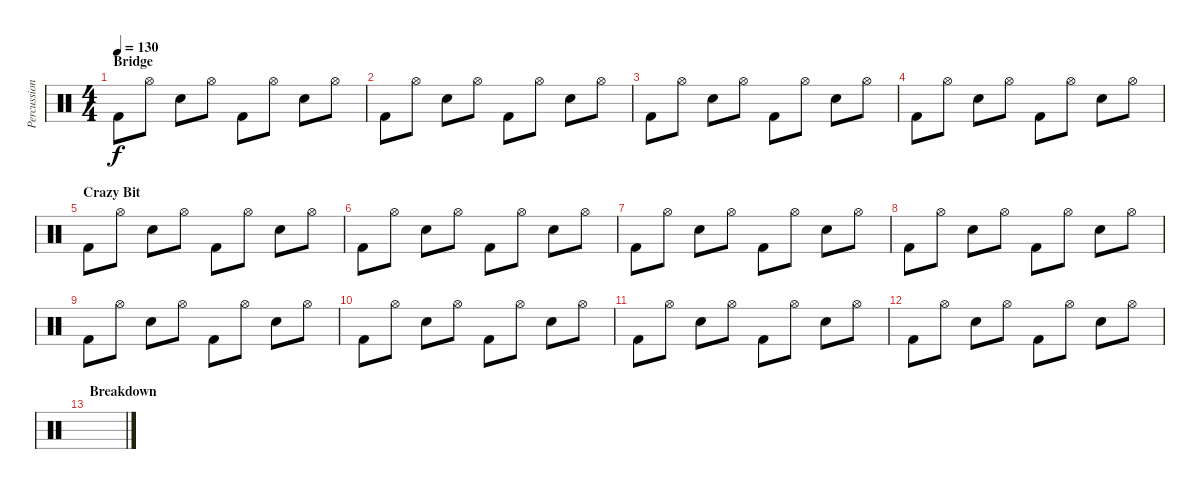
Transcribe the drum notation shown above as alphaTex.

\track ("Percussion" "Percussion") {instrument percussion}
\staff {score}
\articulation defaults
\ts (4 4)
\section ("" "Bridge")
\tempo 130
\clef neutral
\ks c "Kick (hit) 2".8{dy f} "Hi-Hat (open)".8 "Electric Snare (hit)".8 "Hi-Hat (open)".8 "Kick (hit) 2".8 "Hi-Hat (open)".8 "Electric Snare (hit)".8 "Hi-Hat (open)".8
|
"Kick (hit) 2".8 "Hi-Hat (open)".8 "Electric Snare (hit)".8 "Hi-Hat (open)".8 "Kick (hit) 2".8 "Hi-Hat (open)".8 "Electric Snare (hit)".8 "Hi-Hat (open)".8 |
"Kick (hit) 2".8 "Hi-Hat (open)".8 "Electric Snare (hit)".8 "Hi-Hat (open)".8 "Kick (hit) 2".8 "Hi-Hat (open)".8 "Electric Snare (hit)".8 "Hi-Hat (open)".8 |
"Kick (hit) 2".8 "Hi-Hat (open)".8 "Electric Snare (hit)".8 "Hi-Hat (open)".8 "Kick (hit) 2".8 "Hi-Hat (open)".8 "Electric Snare (hit)".8 "Hi-Hat (open)".8 |
\section ("" "Crazy Bit")
"Kick (hit) 2".8 "Hi-Hat (open)".8 "Electric Snare (hit)".8 "Hi-Hat (open)".8 "Kick (hit) 2".8 "Hi-Hat (open)".8 "Electric Snare (hit)".8 "Hi-Hat (open)".8 |
"Kick (hit) 2".8 "Hi-Hat (open)".8 "Electric Snare (hit)".8 "Hi-Hat (open)".8 "Kick (hit) 2".8 "Hi-Hat (open)".8 "Electric Snare (hit)".8 "Hi-Hat (open)".8 |
"Kick (hit) 2".8 "Hi-Hat (open)".8 "Electric Snare (hit)".8 "Hi-Hat (open)".8 "Kick (hit) 2".8 "Hi-Hat (open)".8 "Electric Snare (hit)".8 "Hi-Hat (open)".8 |
"Kick (hit) 2".8 "Hi-Hat (open)".8 "Electric Snare (hit)".8 "Hi-Hat (open)".8 "Kick (hit) 2".8 "Hi-Hat (open)".8 "Electric Snare (hit)".8 "Hi-Hat (open)".8 |
"Kick (hit) 2".8 "Hi-Hat (open)".8 "Electric Snare (hit)".8 "Hi-Hat (open)".8 "Kick (hit) 2".8 "Hi-Hat (open)".8 "Electric Snare (hit)".8 "Hi-Hat (open)".8 |
"Kick (hit) 2".8 "Hi-Hat (open)".8 "Electric Snare (hit)".8 "Hi-Hat (open)".8 "Kick (hit) 2".8 "Hi-Hat (open)".8 "Electric Snare (hit)".8 "Hi-Hat (open)".8 |
"Kick (hit) 2".8 "Hi-Hat (open)".8 "Electric Snare (hit)".8 "Hi-Hat (open)".8 "Kick (hit) 2".8 "Hi-Hat (open)".8 "Electric Snare (hit)".8 "Hi-Hat (open)".8 |
"Kick (hit) 2".8 "Hi-Hat (open)".8 "Electric Snare (hit)".8 "Hi-Hat (open)".8 "Kick (hit) 2".8 "Hi-Hat (open)".8 "Electric Snare (hit)".8 "Hi-Hat (open)".8 |
\section ("" "Breakdown")
